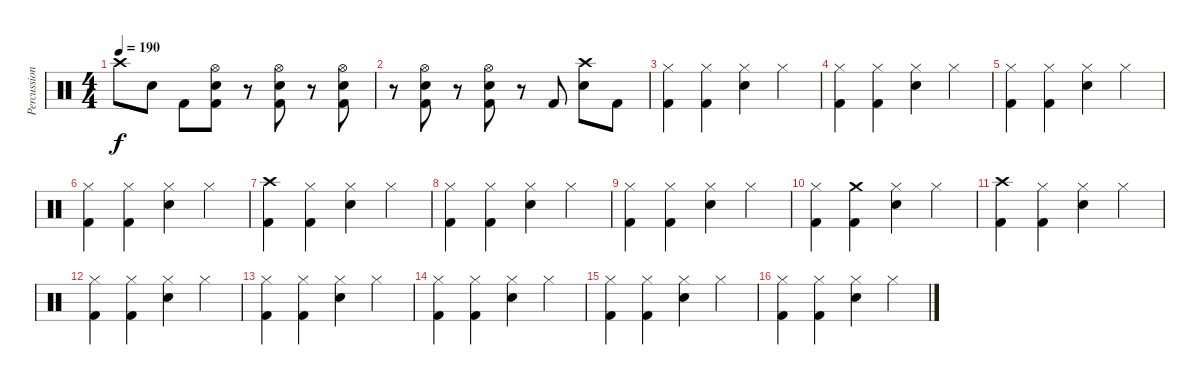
\track ("Percussion" "Percussion") {instrument percussion}
\staff {score}
\articulation defaults
\ts (4 4)
\tempo 190
\clef neutral
\ks c "Crash high (hit)".8{dy f} "Electric Snare (hit)".8 "Kick (hit) 2".8
("Hi-Hat (open)" "Electric Snare (hit)" "Kick (hit) 2").8 r.8 ("Hi-Hat (open)" "Electric Snare (hit)" "Kick (hit) 2").8 r.8 ("Hi-Hat (open)" "Electric Snare (hit)" "Kick (hit) 2").8 |
r.8 ("Hi-Hat (open)" "Electric Snare (hit)" "Kick (hit) 2").8 r.8 ("Hi-Hat (open)" "Electric Snare (hit)" "Kick (hit) 2").8 r.8 "Kick (hit) 2".8 ("Crash high (hit)" "Electric Snare (hit)").8 "Kick (hit) 2".8 |
("Hi-Hat (closed)" "Kick (hit) 2").4 ("Hi-Hat (closed)" "Kick (hit) 2").4 ("Hi-Hat (closed)" "Electric Snare (hit)").4 "Hi-Hat (closed)".4 |
("Hi-Hat (closed)" "Kick (hit) 2").4 ("Hi-Hat (closed)" "Kick (hit) 2").4 ("Hi-Hat (closed)" "Electric Snare (hit)").4 "Hi-Hat (closed)".4 |
("Hi-Hat (closed)" "Kick (hit) 2").4 ("Hi-Hat (closed)" "Kick (hit) 2").4 ("Hi-Hat (closed)" "Electric Snare (hit)").4 "Hi-Hat (closed)".4 |
("Hi-Hat (closed)" "Kick (hit) 2").4 ("Hi-Hat (closed)" "Kick (hit) 2").4 ("Hi-Hat (closed)" "Electric Snare (hit)").4 "Hi-Hat (closed)".4 |
("Crash high (hit)" "Kick (hit) 2").4 ("Hi-Hat (closed)" "Kick (hit) 2").4 ("Hi-Hat (closed)" "Electric Snare (hit)").4 "Hi-Hat (closed)".4 |
("Hi-Hat (closed)" "Kick (hit) 2").4 ("Hi-Hat (closed)" "Kick (hit) 2").4 ("Hi-Hat (closed)" "Electric Snare (hit)").4 "Hi-Hat (closed)".4 |
("Hi-Hat (closed)" "Kick (hit) 2").4 ("Hi-Hat (closed)" "Kick (hit) 2").4 ("Hi-Hat (closed)" "Electric Snare (hit)").4 "Hi-Hat (closed)".4 |
("Hi-Hat (closed)" "Kick (hit) 2").4 ("Crash medium (hit)" "Kick (hit) 2").4 ("Hi-Hat (closed)" "Electric Snare (hit)").4 "Hi-Hat (closed)".4 |
("Crash high (hit)" "Kick (hit) 2").4 ("Hi-Hat (closed)" "Kick (hit) 2").4 ("Hi-Hat (closed)" "Electric Snare (hit)").4 "Hi-Hat (closed)".4 |
("Hi-Hat (closed)" "Kick (hit) 2").4 ("Hi-Hat (closed)" "Kick (hit) 2").4 ("Hi-Hat (closed)" "Electric Snare (hit)").4 "Hi-Hat (closed)".4 |
("Hi-Hat (closed)" "Kick (hit) 2").4 ("Hi-Hat (closed)" "Kick (hit) 2").4 ("Hi-Hat (closed)" "Electric Snare (hit)").4 "Hi-Hat (closed)".4 |
("Hi-Hat (closed)" "Kick (hit) 2").4 ("Hi-Hat (closed)" "Kick (hit) 2").4 ("Hi-Hat (closed)" "Electric Snare (hit)").4 "Hi-Hat (closed)".4 |
("Hi-Hat (closed)" "Kick (hit) 2").4 ("Hi-Hat (closed)" "Kick (hit) 2").4 ("Hi-Hat (closed)" "Electric Snare (hit)").4 "Hi-Hat (closed)".4 |
("Hi-Hat (closed)" "Kick (hit) 2").4 ("Hi-Hat (closed)" "Kick (hit) 2").4 ("Hi-Hat (closed)" "Electric Snare (hit)").4 "Hi-Hat (closed)".4
